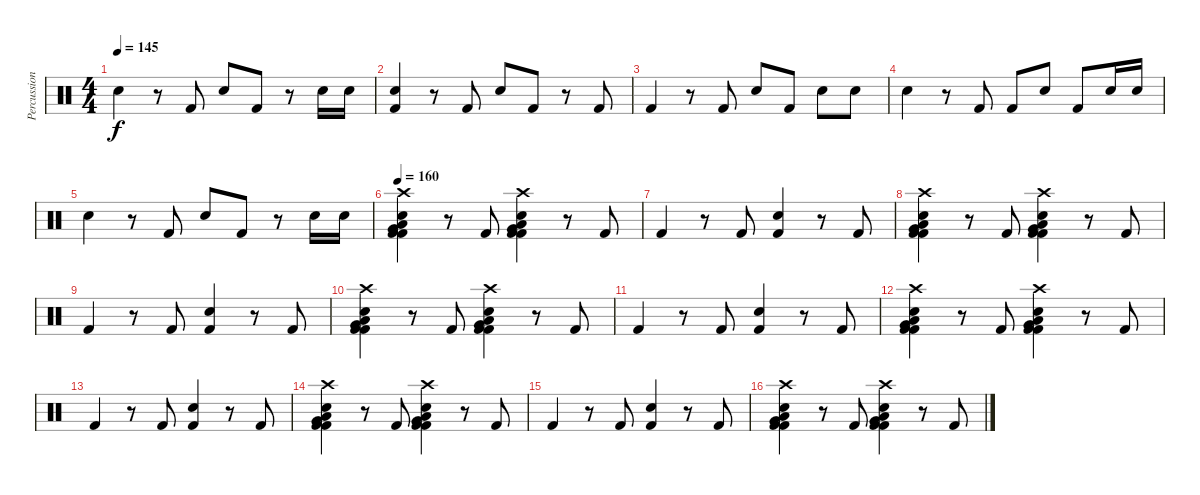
\track ("Percussion" "Percussion") {instrument percussion}
\staff {score}
\articulation defaults
\ts (4 4)
\tempo 145
\clef neutral
\ks c "Snare (hit) 2".4{dy f}
r.8 "Kick (hit) 2".8 "Snare (hit) 2".8 "Kick (hit) 2".8 r.8 "Snare (hit) 2".16 "Snare (hit) 2".16 |
("Kick (hit) 2" "Snare (hit) 2").4 r.8 "Kick (hit) 2".8 "Snare (hit) 2".8 "Kick (hit) 2".8 r.8 "Kick (hit) 2".8 |
"Kick (hit) 2".4 r.8 "Kick (hit) 2".8 "Snare (hit) 2".8 "Kick (hit) 2".8 "Snare (hit) 2".8 "Snare (hit) 2".8 |
"Snare (hit) 2".4 r.8 "Kick (hit) 2".8 "Kick (hit) 2".8 "Snare (hit) 2".8 "Kick (hit) 2".8 "Snare (hit) 2".16 "Snare (hit) 2".16 |
"Snare (hit) 2".4 r.8 "Kick (hit) 2".8 "Snare (hit) 2".8 "Kick (hit) 2".8 r.8 "Snare (hit) 2".16 "Snare (hit) 2".16 |
\tempo 160
("Crash high (hit)" "Kick (hit) 2" "Kick (hit) 2" "Very Low Tom (hit)" "Low Tom (hit)" "Snare (hit) 2").4 r.8 "Kick (hit) 2".8 ("Crash high (hit)" "Kick (hit) 2" "Kick (hit) 2" "Very Low Tom (hit)" "Low Tom (hit)" "Snare (hit) 2").4 r.8 "Kick (hit) 2".8 |
"Kick (hit) 2".4 r.8 "Kick (hit) 2".8 ("Kick (hit) 2" "Snare (hit) 2").4 r.8 "Kick (hit) 2".8 |
("Crash high (hit)" "Kick (hit) 2" "Kick (hit) 2" "Very Low Tom (hit)" "Low Tom (hit)" "Snare (hit) 2").4 r.8 "Kick (hit) 2".8 ("Crash high (hit)" "Kick (hit) 2" "Kick (hit) 2" "Very Low Tom (hit)" "Low Tom (hit)" "Snare (hit) 2").4 r.8 "Kick (hit) 2".8 |
"Kick (hit) 2".4 r.8 "Kick (hit) 2".8 ("Kick (hit) 2" "Snare (hit) 2").4 r.8 "Kick (hit) 2".8 |
("Crash high (hit)" "Kick (hit) 2" "Kick (hit) 2" "Very Low Tom (hit)" "Low Tom (hit)" "Snare (hit) 2").4 r.8 "Kick (hit) 2".8 ("Crash high (hit)" "Kick (hit) 2" "Kick (hit) 2" "Very Low Tom (hit)" "Low Tom (hit)" "Snare (hit) 2").4 r.8 "Kick (hit) 2".8 |
"Kick (hit) 2".4 r.8 "Kick (hit) 2".8 ("Kick (hit) 2" "Snare (hit) 2").4 r.8 "Kick (hit) 2".8 |
("Crash high (hit)" "Kick (hit) 2" "Kick (hit) 2" "Very Low Tom (hit)" "Low Tom (hit)" "Snare (hit) 2").4 r.8 "Kick (hit) 2".8 ("Crash high (hit)" "Kick (hit) 2" "Kick (hit) 2" "Very Low Tom (hit)" "Low Tom (hit)" "Snare (hit) 2").4 r.8 "Kick (hit) 2".8 |
"Kick (hit) 2".4 r.8 "Kick (hit) 2".8 ("Kick (hit) 2" "Snare (hit) 2").4 r.8 "Kick (hit) 2".8 |
("Crash high (hit)" "Kick (hit) 2" "Kick (hit) 2" "Very Low Tom (hit)" "Low Tom (hit)" "Snare (hit) 2").4 r.8 "Kick (hit) 2".8 ("Crash high (hit)" "Kick (hit) 2" "Kick (hit) 2" "Very Low Tom (hit)" "Low Tom (hit)" "Snare (hit) 2").4 r.8 "Kick (hit) 2".8 |
"Kick (hit) 2".4 r.8 "Kick (hit) 2".8 ("Kick (hit) 2" "Snare (hit) 2").4 r.8 "Kick (hit) 2".8 |
("Crash high (hit)" "Kick (hit) 2" "Kick (hit) 2" "Very Low Tom (hit)" "Low Tom (hit)" "Snare (hit) 2").4 r.8 "Kick (hit) 2".8 ("Crash high (hit)" "Kick (hit) 2" "Kick (hit) 2" "Very Low Tom (hit)" "Low Tom (hit)" "Snare (hit) 2").4 r.8 "Kick (hit) 2".8
